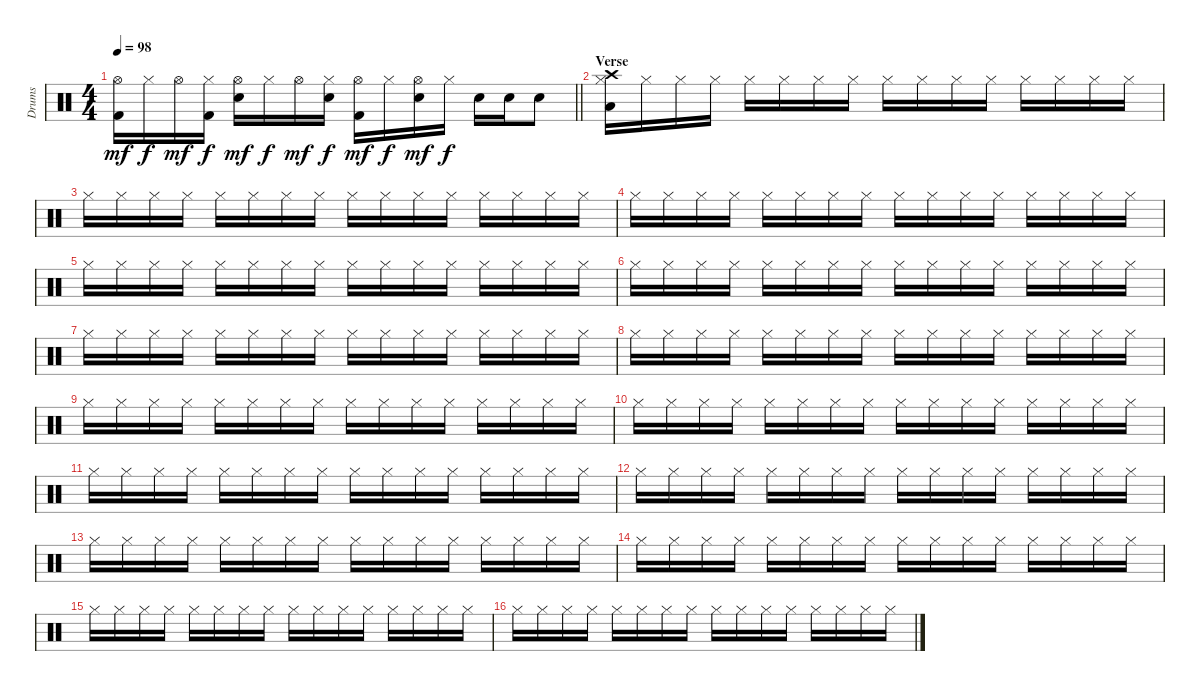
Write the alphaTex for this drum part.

\track ("Drums" "Drums") {instrument percussion}
\staff {score}
\articulation defaults
\ts (4 4)
\tempo 98
\clef neutral
\barLineRight lightlight
\ks c
("Hi-Hat (open)" "Kick (hit) 2").16{dy mf} "Hi-Hat (closed)".16{dy f} "Hi-Hat (open)".16{dy mf} ("Hi-Hat (closed)" "Kick (hit) 2").16{dy f} ("Hi-Hat (open)" "Electric Snare (hit)").16{dy mf} "Hi-Hat (closed)".16{dy f} "Hi-Hat (open)".16{dy mf} ("Hi-Hat (closed)" "Electric Snare (hit)").16{dy f} ("Hi-Hat (open)" "Kick (hit) 2").16{dy mf} "Hi-Hat (closed)".16{dy f} ("Hi-Hat (open)" "Electric Snare (hit)").16{dy mf} "Hi-Hat (closed)".16{dy f} "Electric Snare (hit)".16 "Electric Snare (hit)".16 "Electric Snare (hit)".8 |
\section ("" "Verse")
("Crash high (hit)" "Low Floor Tom (hit)" "Hi-Hat (closed)").16 "Hi-Hat (closed)".16 "Hi-Hat (closed)".16 "Hi-Hat (closed)".16 "Hi-Hat (closed)".16 "Hi-Hat (closed)".16 "Hi-Hat (closed)".16 "Hi-Hat (closed)".16 "Hi-Hat (closed)".16 "Hi-Hat (closed)".16 "Hi-Hat (closed)".16 "Hi-Hat (closed)".16 "Hi-Hat (closed)".16 "Hi-Hat (closed)".16 "Hi-Hat (closed)".16 "Hi-Hat (closed)".16 |
"Hi-Hat (closed)".16 "Hi-Hat (closed)".16 "Hi-Hat (closed)".16 "Hi-Hat (closed)".16 "Hi-Hat (closed)".16 "Hi-Hat (closed)".16 "Hi-Hat (closed)".16 "Hi-Hat (closed)".16 "Hi-Hat (closed)".16 "Hi-Hat (closed)".16 "Hi-Hat (closed)".16 "Hi-Hat (closed)".16 "Hi-Hat (closed)".16 "Hi-Hat (closed)".16 "Hi-Hat (closed)".16 "Hi-Hat (closed)".16 |
"Hi-Hat (closed)".16 "Hi-Hat (closed)".16 "Hi-Hat (closed)".16 "Hi-Hat (closed)".16 "Hi-Hat (closed)".16 "Hi-Hat (closed)".16 "Hi-Hat (closed)".16 "Hi-Hat (closed)".16 "Hi-Hat (closed)".16 "Hi-Hat (closed)".16 "Hi-Hat (closed)".16 "Hi-Hat (closed)".16 "Hi-Hat (closed)".16 "Hi-Hat (closed)".16 "Hi-Hat (closed)".16 "Hi-Hat (closed)".16 |
"Hi-Hat (closed)".16 "Hi-Hat (closed)".16 "Hi-Hat (closed)".16 "Hi-Hat (closed)".16 "Hi-Hat (closed)".16 "Hi-Hat (closed)".16 "Hi-Hat (closed)".16 "Hi-Hat (closed)".16 "Hi-Hat (closed)".16 "Hi-Hat (closed)".16 "Hi-Hat (closed)".16 "Hi-Hat (closed)".16 "Hi-Hat (closed)".16 "Hi-Hat (closed)".16 "Hi-Hat (closed)".16 "Hi-Hat (closed)".16 |
"Hi-Hat (closed)".16 "Hi-Hat (closed)".16 "Hi-Hat (closed)".16 "Hi-Hat (closed)".16 "Hi-Hat (closed)".16 "Hi-Hat (closed)".16 "Hi-Hat (closed)".16 "Hi-Hat (closed)".16 "Hi-Hat (closed)".16 "Hi-Hat (closed)".16 "Hi-Hat (closed)".16 "Hi-Hat (closed)".16 "Hi-Hat (closed)".16 "Hi-Hat (closed)".16 "Hi-Hat (closed)".16 "Hi-Hat (closed)".16 |
"Hi-Hat (closed)".16 "Hi-Hat (closed)".16 "Hi-Hat (closed)".16 "Hi-Hat (closed)".16 "Hi-Hat (closed)".16 "Hi-Hat (closed)".16 "Hi-Hat (closed)".16 "Hi-Hat (closed)".16 "Hi-Hat (closed)".16 "Hi-Hat (closed)".16 "Hi-Hat (closed)".16 "Hi-Hat (closed)".16 "Hi-Hat (closed)".16 "Hi-Hat (closed)".16 "Hi-Hat (closed)".16 "Hi-Hat (closed)".16 |
"Hi-Hat (closed)".16 "Hi-Hat (closed)".16 "Hi-Hat (closed)".16 "Hi-Hat (closed)".16 "Hi-Hat (closed)".16 "Hi-Hat (closed)".16 "Hi-Hat (closed)".16 "Hi-Hat (closed)".16 "Hi-Hat (closed)".16 "Hi-Hat (closed)".16 "Hi-Hat (closed)".16 "Hi-Hat (closed)".16 "Hi-Hat (closed)".16 "Hi-Hat (closed)".16 "Hi-Hat (closed)".16 "Hi-Hat (closed)".16 |
"Hi-Hat (closed)".16 "Hi-Hat (closed)".16 "Hi-Hat (closed)".16 "Hi-Hat (closed)".16 "Hi-Hat (closed)".16 "Hi-Hat (closed)".16 "Hi-Hat (closed)".16 "Hi-Hat (closed)".16 "Hi-Hat (closed)".16 "Hi-Hat (closed)".16 "Hi-Hat (closed)".16 "Hi-Hat (closed)".16 "Hi-Hat (closed)".16 "Hi-Hat (closed)".16 "Hi-Hat (closed)".16 "Hi-Hat (closed)".16 |
"Hi-Hat (closed)".16 "Hi-Hat (closed)".16 "Hi-Hat (closed)".16 "Hi-Hat (closed)".16 "Hi-Hat (closed)".16 "Hi-Hat (closed)".16 "Hi-Hat (closed)".16 "Hi-Hat (closed)".16 "Hi-Hat (closed)".16 "Hi-Hat (closed)".16 "Hi-Hat (closed)".16 "Hi-Hat (closed)".16 "Hi-Hat (closed)".16 "Hi-Hat (closed)".16 "Hi-Hat (closed)".16 "Hi-Hat (closed)".16 |
"Hi-Hat (closed)".16 "Hi-Hat (closed)".16 "Hi-Hat (closed)".16 "Hi-Hat (closed)".16 "Hi-Hat (closed)".16 "Hi-Hat (closed)".16 "Hi-Hat (closed)".16 "Hi-Hat (closed)".16 "Hi-Hat (closed)".16 "Hi-Hat (closed)".16 "Hi-Hat (closed)".16 "Hi-Hat (closed)".16 "Hi-Hat (closed)".16 "Hi-Hat (closed)".16 "Hi-Hat (closed)".16 "Hi-Hat (closed)".16 |
"Hi-Hat (closed)".16 "Hi-Hat (closed)".16 "Hi-Hat (closed)".16 "Hi-Hat (closed)".16 "Hi-Hat (closed)".16 "Hi-Hat (closed)".16 "Hi-Hat (closed)".16 "Hi-Hat (closed)".16 "Hi-Hat (closed)".16 "Hi-Hat (closed)".16 "Hi-Hat (closed)".16 "Hi-Hat (closed)".16 "Hi-Hat (closed)".16 "Hi-Hat (closed)".16 "Hi-Hat (closed)".16 "Hi-Hat (closed)".16 |
"Hi-Hat (closed)".16 "Hi-Hat (closed)".16 "Hi-Hat (closed)".16 "Hi-Hat (closed)".16 "Hi-Hat (closed)".16 "Hi-Hat (closed)".16 "Hi-Hat (closed)".16 "Hi-Hat (closed)".16 "Hi-Hat (closed)".16 "Hi-Hat (closed)".16 "Hi-Hat (closed)".16 "Hi-Hat (closed)".16 "Hi-Hat (closed)".16 "Hi-Hat (closed)".16 "Hi-Hat (closed)".16 "Hi-Hat (closed)".16 |
"Hi-Hat (closed)".16 "Hi-Hat (closed)".16 "Hi-Hat (closed)".16 "Hi-Hat (closed)".16 "Hi-Hat (closed)".16 "Hi-Hat (closed)".16 "Hi-Hat (closed)".16 "Hi-Hat (closed)".16 "Hi-Hat (closed)".16 "Hi-Hat (closed)".16 "Hi-Hat (closed)".16 "Hi-Hat (closed)".16 "Hi-Hat (closed)".16 "Hi-Hat (closed)".16 "Hi-Hat (closed)".16 "Hi-Hat (closed)".16 |
"Hi-Hat (closed)".16 "Hi-Hat (closed)".16 "Hi-Hat (closed)".16 "Hi-Hat (closed)".16 "Hi-Hat (closed)".16 "Hi-Hat (closed)".16 "Hi-Hat (closed)".16 "Hi-Hat (closed)".16 "Hi-Hat (closed)".16 "Hi-Hat (closed)".16 "Hi-Hat (closed)".16 "Hi-Hat (closed)".16 "Hi-Hat (closed)".16 "Hi-Hat (closed)".16 "Hi-Hat (closed)".16 "Hi-Hat (closed)".16 |
"Hi-Hat (closed)".16 "Hi-Hat (closed)".16 "Hi-Hat (closed)".16 "Hi-Hat (closed)".16 "Hi-Hat (closed)".16 "Hi-Hat (closed)".16 "Hi-Hat (closed)".16 "Hi-Hat (closed)".16 "Hi-Hat (closed)".16 "Hi-Hat (closed)".16 "Hi-Hat (closed)".16 "Hi-Hat (closed)".16 "Hi-Hat (closed)".16 "Hi-Hat (closed)".16 "Hi-Hat (closed)".16 "Hi-Hat (closed)".16
